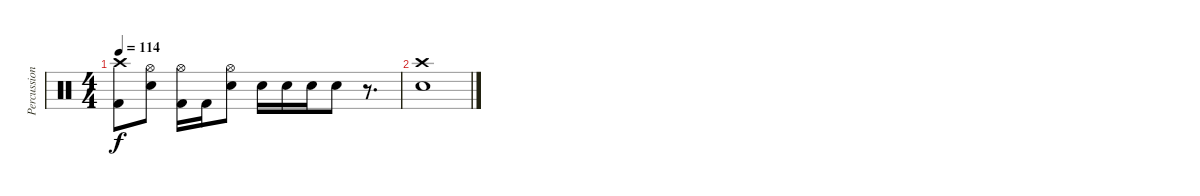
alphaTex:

\track ("Percussion" "Percussion") {instrument percussion}
\staff {score}
\articulation defaults
\ts (4 4)
\tempo 114
\clef neutral
\ks c
("Crash high (hit)" "Kick (hit) 2").8{dy f} ("Hi-Hat (open)" "Electric Snare (hit)").8 ("Hi-Hat (open)" "Kick (hit) 2").16 "Kick (hit) 2".16 ("Hi-Hat (open)" "Electric Snare (hit)").8 "Electric Snare (hit)".16 "Electric Snare (hit)".16 "Electric Snare (hit)".16 "Electric Snare (hit)".8 r.8{d} |
("Crash high (hit)" "Electric Snare (hit)").1
